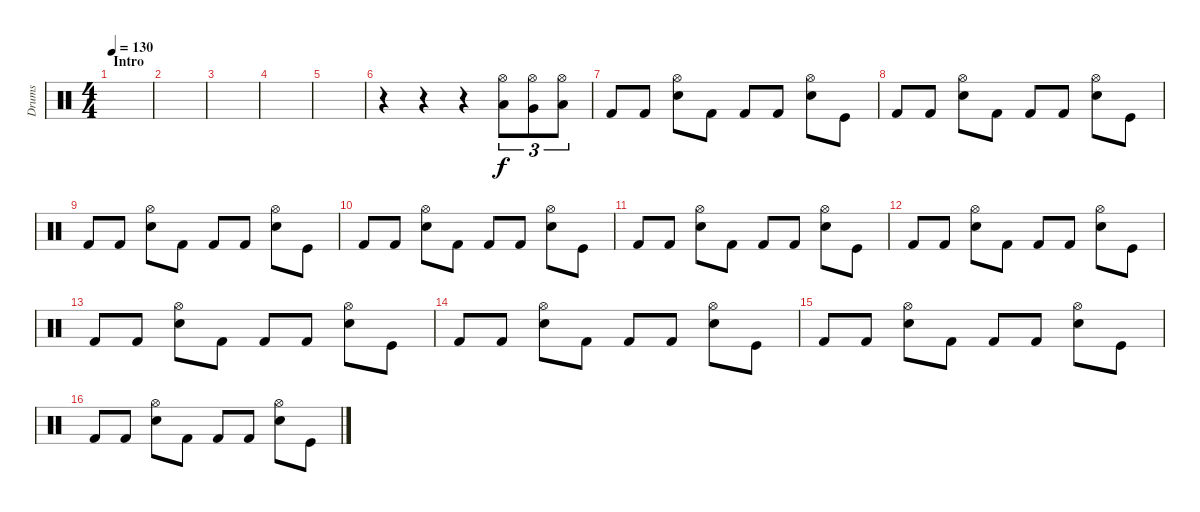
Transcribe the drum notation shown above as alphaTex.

\track ("Drums" "Drums") {instrument percussion}
\staff {score}
\articulation defaults
\ts (4 4)
\section ("" "Intro")
\tempo 130
\clef neutral
\ks c
|
|
|
|
|
r.4 r.4 r.4 ("Low Tom (hit)" "Hi-Hat (open)").8{tu (3 2)} ("Very Low Tom (hit)" "Hi-Hat (open)").8{tu (3 2)} ("Low Floor Tom (hit)" "Hi-Hat (open)").8{tu (3 2)} |
"Kick (hit) 2".8 "Kick (hit) 2".8 ("Electric Snare (hit)" "Hi-Hat (open)").8 "Kick (hit) 2".8 "Kick (hit) 2".8 "Kick (hit) 2".8 ("Electric Snare (hit)" "Hi-Hat (open)").8 "Kick (hit)".8 |
"Kick (hit) 2".8 "Kick (hit) 2".8 ("Electric Snare (hit)" "Hi-Hat (open)").8 "Kick (hit) 2".8 "Kick (hit) 2".8 "Kick (hit) 2".8 ("Electric Snare (hit)" "Hi-Hat (open)").8 "Kick (hit)".8 |
"Kick (hit) 2".8 "Kick (hit) 2".8 ("Electric Snare (hit)" "Hi-Hat (open)").8 "Kick (hit) 2".8 "Kick (hit) 2".8 "Kick (hit) 2".8 ("Electric Snare (hit)" "Hi-Hat (open)").8 "Kick (hit)".8 |
"Kick (hit) 2".8 "Kick (hit) 2".8 ("Electric Snare (hit)" "Hi-Hat (open)").8 "Kick (hit) 2".8 "Kick (hit) 2".8 "Kick (hit) 2".8 ("Electric Snare (hit)" "Hi-Hat (open)").8 "Kick (hit)".8 |
"Kick (hit) 2".8 "Kick (hit) 2".8 ("Electric Snare (hit)" "Hi-Hat (open)").8 "Kick (hit) 2".8 "Kick (hit) 2".8 "Kick (hit) 2".8 ("Electric Snare (hit)" "Hi-Hat (open)").8 "Kick (hit)".8 |
"Kick (hit) 2".8 "Kick (hit) 2".8 ("Electric Snare (hit)" "Hi-Hat (open)").8 "Kick (hit) 2".8 "Kick (hit) 2".8 "Kick (hit) 2".8 ("Electric Snare (hit)" "Hi-Hat (open)").8 "Kick (hit)".8 |
"Kick (hit) 2".8 "Kick (hit) 2".8 ("Electric Snare (hit)" "Hi-Hat (open)").8 "Kick (hit) 2".8 "Kick (hit) 2".8 "Kick (hit) 2".8 ("Electric Snare (hit)" "Hi-Hat (open)").8 "Kick (hit)".8 |
"Kick (hit) 2".8 "Kick (hit) 2".8 ("Electric Snare (hit)" "Hi-Hat (open)").8 "Kick (hit) 2".8 "Kick (hit) 2".8 "Kick (hit) 2".8 ("Electric Snare (hit)" "Hi-Hat (open)").8 "Kick (hit)".8 |
"Kick (hit) 2".8 "Kick (hit) 2".8 ("Electric Snare (hit)" "Hi-Hat (open)").8 "Kick (hit) 2".8 "Kick (hit) 2".8 "Kick (hit) 2".8 ("Electric Snare (hit)" "Hi-Hat (open)").8 "Kick (hit)".8 |
"Kick (hit) 2".8 "Kick (hit) 2".8 ("Electric Snare (hit)" "Hi-Hat (open)").8 "Kick (hit) 2".8 "Kick (hit) 2".8 "Kick (hit) 2".8 ("Electric Snare (hit)" "Hi-Hat (open)").8 "Kick (hit)".8
